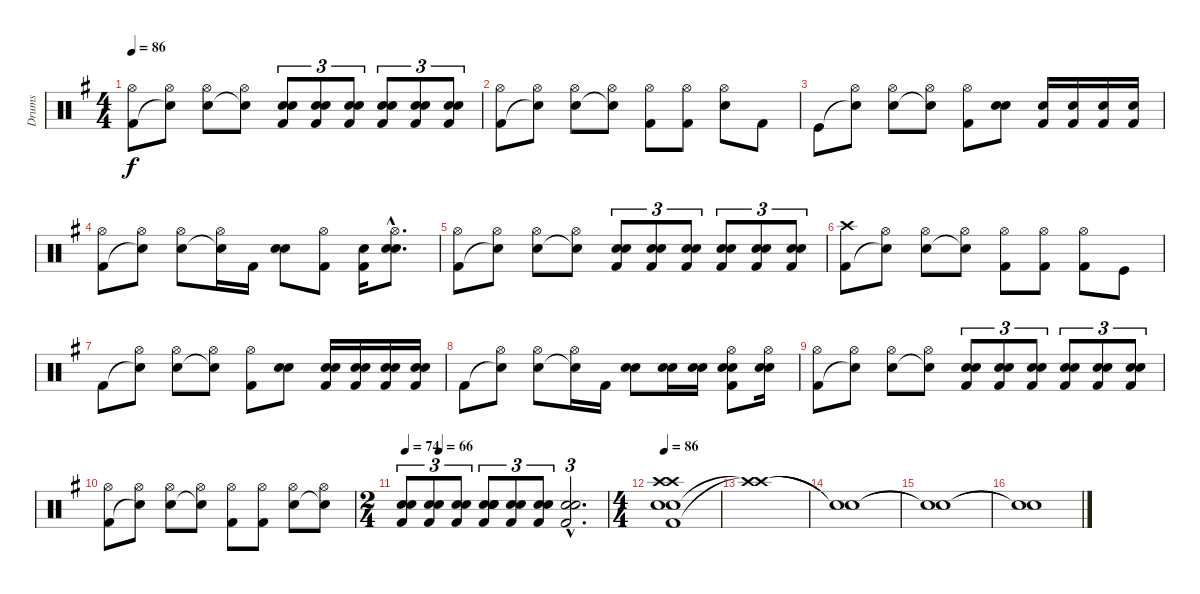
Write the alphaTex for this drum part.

\track ("Drums" "Drums") {instrument percussion}
\staff {score}
\articulation defaults
\ts (4 4)
\tempo 86
\clef neutral
\ks eminor
("Kick (hit) 2" "Hi-Hat (open)").8{dy f} ("Snare (hit)"{t} "Hi-Hat (open)").8 ("Electric Snare (hit)" "Hi-Hat (open)").8 ("Snare (hit)"{t} "Hi-Hat (open)").8 ("Kick (hit) 2" "Electric Snare (hit)" "Electric Snare (hit)").8{tu (3 2)} ("Kick (hit) 2" "Electric Snare (hit)" "Electric Snare (hit)").8{tu (3 2)} ("Kick (hit) 2" "Electric Snare (hit)" "Electric Snare (hit)").8{tu (3 2)} ("Kick (hit) 2" "Electric Snare (hit)" "Electric Snare (hit)").8{tu (3 2)} ("Kick (hit) 2" "Electric Snare (hit)" "Electric Snare (hit)").8{tu (3 2)} ("Kick (hit) 2" "Electric Snare (hit)" "Electric Snare (hit)").8{tu (3 2)} |
("Kick (hit) 2" "Hi-Hat (open)").8 ("Snare (hit)"{t} "Hi-Hat (open)").8 ("Electric Snare (hit)" "Hi-Hat (open)").8 ("Snare (hit)"{t} "Hi-Hat (open)").8 ("Kick (hit) 2" "Hi-Hat (open)").8 ("Kick (hit) 2" "Hi-Hat (open)").8 ("Electric Snare (hit)" "Hi-Hat (open)").8 "Kick (hit) 2".8 |
"Kick (hit)".8 ("Snare (hit)"{t} "Hi-Hat (open)").8 ("Electric Snare (hit)" "Hi-Hat (open)").8 ("Snare (hit)"{t} "Hi-Hat (open)").8 ("Kick (hit) 2" "Hi-Hat (open)").8 ("Electric Snare (hit)" "Electric Snare (hit)").8 ("Kick (hit) 2" "Electric Snare (hit)").16 ("Kick (hit) 2" "Electric Snare (hit)").16 ("Kick (hit) 2" "Electric Snare (hit)").16 ("Kick (hit) 2" "Electric Snare (hit)").16 |
("Kick (hit) 2" "Hi-Hat (open)").8 ("Snare (hit)"{t} "Hi-Hat (open)").8 ("Electric Snare (hit)" "Hi-Hat (open)").8 ("Snare (hit)"{t} "Hi-Hat (open)").16 "Kick (hit) 2".16 ("Electric Snare (hit)" "Electric Snare (hit)").8 ("Kick (hit) 2" "Hi-Hat (open)").8 ("Kick (hit) 2" "Electric Snare (hit)").16 ("Electric Snare (hit)"{hac} "Electric Snare (hit)"{hac} "Hi-Hat (open)"{hac}).8{d} |
("Kick (hit) 2" "Hi-Hat (open)").8 ("Snare (hit)"{t} "Hi-Hat (open)").8 ("Electric Snare (hit)" "Hi-Hat (open)").8 ("Snare (hit)"{t} "Hi-Hat (open)").8 ("Kick (hit) 2" "Electric Snare (hit)" "Electric Snare (hit)").8{tu (3 2)} ("Kick (hit) 2" "Electric Snare (hit)" "Electric Snare (hit)").8{tu (3 2)} ("Kick (hit) 2" "Electric Snare (hit)" "Electric Snare (hit)").8{tu (3 2)} ("Kick (hit) 2" "Electric Snare (hit)" "Electric Snare (hit)").8{tu (3 2)} ("Kick (hit) 2" "Electric Snare (hit)" "Electric Snare (hit)").8{tu (3 2)} ("Kick (hit) 2" "Electric Snare (hit)" "Electric Snare (hit)").8{tu (3 2)} |
("Kick (hit) 2" "Crash high (hit)").8 ("Snare (hit)"{t} "Hi-Hat (open)").8 ("Electric Snare (hit)" "Hi-Hat (open)").8 ("Snare (hit)"{t} "Hi-Hat (open)").8 ("Kick (hit) 2" "Hi-Hat (open)").8 ("Kick (hit) 2" "Hi-Hat (open)").8 ("Kick (hit) 2" "Hi-Hat (open)").8 "Kick (hit)".8 |
"Kick (hit) 2".8 ("Snare (hit)"{t} "Hi-Hat (open)").8 ("Electric Snare (hit)" "Hi-Hat (open)").8 ("Snare (hit)"{t} "Hi-Hat (open)").8 ("Kick (hit) 2" "Hi-Hat (open)").8 ("Electric Snare (hit)" "Electric Snare (hit)").8 ("Kick (hit) 2" "Electric Snare (hit)" "Electric Snare (hit)").16 ("Kick (hit) 2" "Electric Snare (hit)" "Electric Snare (hit)").16 ("Kick (hit) 2" "Electric Snare (hit)" "Electric Snare (hit)").16 ("Kick (hit) 2" "Electric Snare (hit)" "Electric Snare (hit)").16 |
"Kick (hit) 2".8 ("Snare (hit)"{t} "Hi-Hat (open)").8 ("Electric Snare (hit)" "Hi-Hat (open)").8 ("Snare (hit)"{t} "Hi-Hat (open)").16 "Kick (hit) 2".16 ("Electric Snare (hit)" "Electric Snare (hit)").8 ("Electric Snare (hit)" "Electric Snare (hit)").16 ("Electric Snare (hit)" "Electric Snare (hit)").16 ("Kick (hit) 2" "Electric Snare (hit)" "Electric Snare (hit)" "Hi-Hat (open)").8 ("Electric Snare (hit)" "Electric Snare (hit)" "Hi-Hat (open)").16 |
("Kick (hit) 2" "Hi-Hat (open)").8 ("Snare (hit)"{t} "Hi-Hat (open)").8 ("Electric Snare (hit)" "Hi-Hat (open)").8 ("Snare (hit)"{t} "Hi-Hat (open)").8 ("Kick (hit) 2" "Electric Snare (hit)" "Electric Snare (hit)").8{tu (3 2)} ("Kick (hit) 2" "Electric Snare (hit)" "Electric Snare (hit)").8{tu (3 2)} ("Kick (hit) 2" "Electric Snare (hit)" "Electric Snare (hit)").8{tu (3 2)} ("Kick (hit) 2" "Electric Snare (hit)" "Electric Snare (hit)").8{tu (3 2)} ("Kick (hit) 2" "Electric Snare (hit)" "Electric Snare (hit)").8{tu (3 2)} ("Kick (hit) 2" "Electric Snare (hit)" "Electric Snare (hit)").8{tu (3 2)} |
("Kick (hit) 2" "Hi-Hat (open)").8 ("Snare (hit)"{t} "Hi-Hat (open)").8 ("Electric Snare (hit)" "Hi-Hat (open)").8 ("Snare (hit)"{t} "Hi-Hat (open)").8 ("Kick (hit) 2" "Hi-Hat (open)").8 ("Kick (hit) 2" "Hi-Hat (open)").8 ("Electric Snare (hit)" "Hi-Hat (open)").8 ("Snare (hit)"{t} "Hi-Hat (open)").8 |
\ts (2 4)
\tempo 74
\tempo (66 0.16666666666666666)
("Kick (hit) 2" "Electric Snare (hit)" "Electric Snare (hit)").8{tu (3 2)} ("Kick (hit) 2" "Electric Snare (hit)" "Electric Snare (hit)").8{tu (3 2)} ("Kick (hit) 2" "Electric Snare (hit)" "Electric Snare (hit)").8{tu (3 2)} ("Kick (hit) 2" "Electric Snare (hit)" "Electric Snare (hit)" "Snare (hit) 2" "Snare (hit) 2").8{tu (3 2)} ("Kick (hit) 2" "Electric Snare (hit)" "Electric Snare (hit)").8{tu (3 2)} ("Kick (hit) 2" "Electric Snare (hit)" "Electric Snare (hit)").8{tu (3 2)} ("Kick (hit) 2"{hac} "Electric Snare (hit)"{hac} "Electric Snare (hit)"{hac}).2{d tu (3 2)} |
\ts (4 4)
\tempo 86
("Kick (hit) 2" "Electric Snare (hit)" "Electric Snare (hit)" "Crash high (hit)" "Crash high (hit)").1 |
("Crash high (hit)"{t} "Crash high (hit)"{t}).1 |
("Snare (hit)"{t} "Snare (hit)"{t}).1 |
("Snare (hit)"{t} "Snare (hit)"{t}).1 |
("Snare (hit)"{t} "Snare (hit)"{t}).1
